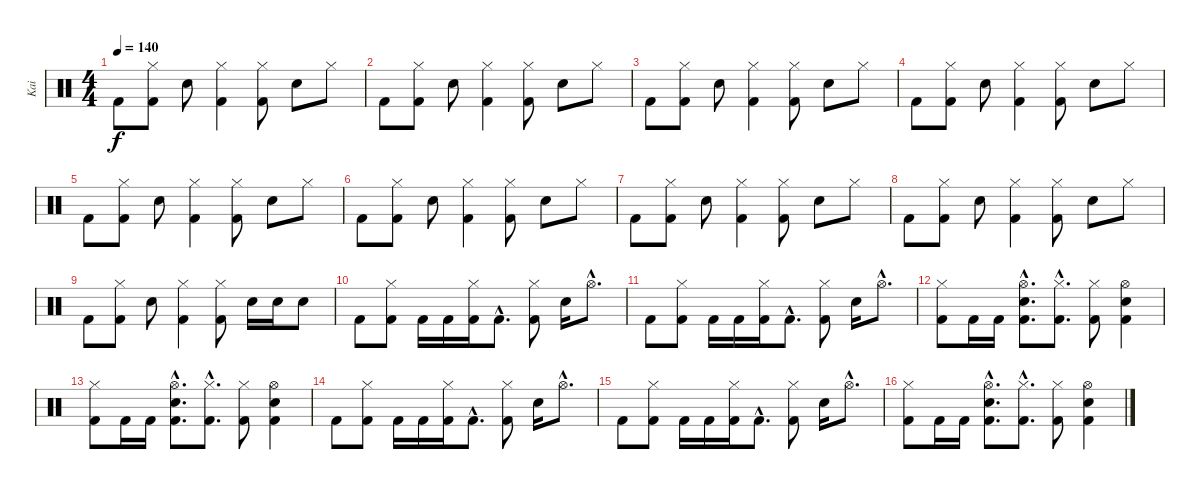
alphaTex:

\track ("Kai" "Kai") {instrument percussion}
\staff {score}
\articulation defaults
\ts (4 4)
\tempo 140
\clef neutral
\ks c "Kick (hit) 2".8{dy f}
("Kick (hit) 2" "Hi-Hat (closed)").8 "Electric Snare (hit)".8 ("Kick (hit) 2" "Hi-Hat (closed)").4 ("Kick (hit) 2" "Hi-Hat (closed)").8 "Electric Snare (hit)".8 "Hi-Hat (closed)".8 |
"Kick (hit) 2".8 ("Kick (hit) 2" "Hi-Hat (closed)").8 "Electric Snare (hit)".8 ("Kick (hit) 2" "Hi-Hat (closed)").4 ("Kick (hit) 2" "Hi-Hat (closed)").8 "Electric Snare (hit)".8 "Hi-Hat (closed)".8 |
"Kick (hit) 2".8 ("Kick (hit) 2" "Hi-Hat (closed)").8 "Electric Snare (hit)".8 ("Kick (hit) 2" "Hi-Hat (closed)").4 ("Kick (hit) 2" "Hi-Hat (closed)").8 "Electric Snare (hit)".8 "Hi-Hat (closed)".8 |
"Kick (hit) 2".8 ("Kick (hit) 2" "Hi-Hat (closed)").8 "Electric Snare (hit)".8 ("Kick (hit) 2" "Hi-Hat (closed)").4 ("Kick (hit) 2" "Hi-Hat (closed)").8 "Electric Snare (hit)".8 "Hi-Hat (closed)".8 |
"Kick (hit) 2".8 ("Kick (hit) 2" "Hi-Hat (closed)").8 "Electric Snare (hit)".8 ("Kick (hit) 2" "Hi-Hat (closed)").4 ("Kick (hit) 2" "Hi-Hat (closed)").8 "Electric Snare (hit)".8 "Hi-Hat (closed)".8 |
"Kick (hit) 2".8 ("Kick (hit) 2" "Hi-Hat (closed)").8 "Electric Snare (hit)".8 ("Kick (hit) 2" "Hi-Hat (closed)").4 ("Kick (hit) 2" "Hi-Hat (closed)").8 "Electric Snare (hit)".8 "Hi-Hat (closed)".8 |
"Kick (hit) 2".8 ("Kick (hit) 2" "Hi-Hat (closed)").8 "Electric Snare (hit)".8 ("Kick (hit) 2" "Hi-Hat (closed)").4 ("Kick (hit) 2" "Hi-Hat (closed)").8 "Electric Snare (hit)".8 "Hi-Hat (closed)".8 |
"Kick (hit) 2".8 ("Kick (hit) 2" "Hi-Hat (closed)").8 "Electric Snare (hit)".8 ("Kick (hit) 2" "Hi-Hat (closed)").4 ("Kick (hit) 2" "Hi-Hat (closed)").8 "Electric Snare (hit)".8 "Hi-Hat (closed)".8 |
"Kick (hit) 2".8 ("Kick (hit) 2" "Hi-Hat (closed)").8 "Electric Snare (hit)".8 ("Kick (hit) 2" "Hi-Hat (closed)").4 ("Kick (hit) 2" "Hi-Hat (closed)").8 "Electric Snare (hit)".16 "Electric Snare (hit)".16 "Electric Snare (hit)".8 |
"Kick (hit) 2".8 ("Kick (hit) 2" "Hi-Hat (closed)").8 "Kick (hit) 2".16 "Kick (hit) 2".16 ("Kick (hit) 2" "Hi-Hat (closed)").16 "Kick (hit) 2"{hac}.8{d} ("Kick (hit) 2" "Hi-Hat (closed)").8 "Electric Snare (hit)".16 "Hi-Hat (open)"{hac}.8{d} |
"Kick (hit) 2".8 ("Kick (hit) 2" "Hi-Hat (closed)").8 "Kick (hit) 2".16 "Kick (hit) 2".16 ("Kick (hit) 2" "Hi-Hat (closed)").16 "Kick (hit) 2"{hac}.8{d} ("Kick (hit) 2" "Hi-Hat (closed)").8 "Electric Snare (hit)".16 "Hi-Hat (open)"{hac}.8{d} |
("Kick (hit) 2" "Hi-Hat (closed)").8 "Kick (hit) 2".16 "Kick (hit) 2".16 ("Kick (hit) 2"{hac} "Electric Snare (hit)"{hac} "Hi-Hat (open)"{hac}).8{d} ("Kick (hit) 2"{hac} "Hi-Hat (closed)"{hac}).8{d} ("Kick (hit) 2" "Hi-Hat (closed)").8 ("Kick (hit) 2" "Electric Snare (hit)" "Hi-Hat (open)").4 |
("Kick (hit) 2" "Hi-Hat (closed)").8 "Kick (hit) 2".16 "Kick (hit) 2".16 ("Kick (hit) 2"{hac} "Electric Snare (hit)"{hac} "Hi-Hat (open)"{hac}).8{d} ("Kick (hit) 2"{hac} "Hi-Hat (closed)"{hac}).8{d} ("Kick (hit) 2" "Hi-Hat (closed)").8 ("Kick (hit) 2" "Electric Snare (hit)" "Hi-Hat (open)").4 |
"Kick (hit) 2".8 ("Kick (hit) 2" "Hi-Hat (closed)").8 "Kick (hit) 2".16 "Kick (hit) 2".16 ("Kick (hit) 2" "Hi-Hat (closed)").16 "Kick (hit) 2"{hac}.8{d} ("Kick (hit) 2" "Hi-Hat (closed)").8 "Electric Snare (hit)".16 "Hi-Hat (open)"{hac}.8{d} |
"Kick (hit) 2".8 ("Kick (hit) 2" "Hi-Hat (closed)").8 "Kick (hit) 2".16 "Kick (hit) 2".16 ("Kick (hit) 2" "Hi-Hat (closed)").16 "Kick (hit) 2"{hac}.8{d} ("Kick (hit) 2" "Hi-Hat (closed)").8 "Electric Snare (hit)".16 "Hi-Hat (open)"{hac}.8{d} |
("Kick (hit) 2" "Hi-Hat (closed)").8 "Kick (hit) 2".16 "Kick (hit) 2".16 ("Kick (hit) 2"{hac} "Electric Snare (hit)"{hac} "Hi-Hat (open)"{hac}).8{d} ("Kick (hit) 2"{hac} "Hi-Hat (closed)"{hac}).8{d} ("Kick (hit) 2" "Hi-Hat (closed)").8 ("Kick (hit) 2" "Electric Snare (hit)" "Hi-Hat (open)").4
